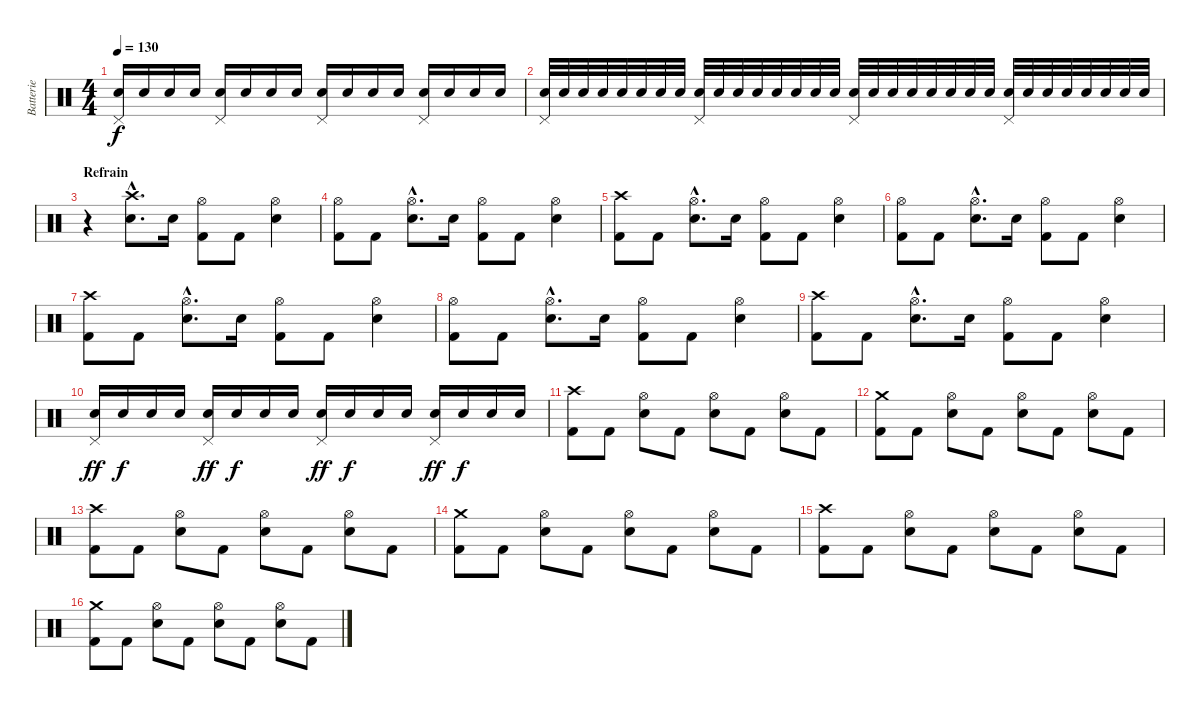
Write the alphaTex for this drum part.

\track ("Batterie" "Batterie") {instrument percussion}
\staff {score}
\articulation defaults
\ts (4 4)
\tempo 130
\clef neutral
\ks c
("Pedal Hi-Hat (hit)" "Snare (hit) 2").16{dy f} "Snare (hit) 2".16 "Snare (hit) 2".16 "Snare (hit) 2".16 ("Pedal Hi-Hat (hit)" "Snare (hit) 2").16 "Snare (hit) 2".16 "Snare (hit) 2".16 "Snare (hit) 2".16 ("Pedal Hi-Hat (hit)" "Snare (hit) 2").16 "Snare (hit) 2".16 "Snare (hit) 2".16 "Snare (hit) 2".16 ("Pedal Hi-Hat (hit)" "Snare (hit) 2").16 "Snare (hit) 2".16 "Snare (hit) 2".16 "Snare (hit) 2".16 |
("Pedal Hi-Hat (hit)" "Snare (hit) 2").32 "Snare (hit) 2".32 "Snare (hit) 2".32 "Snare (hit) 2".32 "Snare (hit) 2".32 "Snare (hit) 2".32 "Snare (hit) 2".32 "Snare (hit) 2".32 ("Pedal Hi-Hat (hit)" "Snare (hit) 2").32 "Snare (hit) 2".32 "Snare (hit) 2".32 "Snare (hit) 2".32 "Snare (hit) 2".32 "Snare (hit) 2".32 "Snare (hit) 2".32 "Snare (hit) 2".32 ("Pedal Hi-Hat (hit)" "Snare (hit) 2").32 "Snare (hit) 2".32 "Snare (hit) 2".32 "Snare (hit) 2".32 "Snare (hit) 2".32 "Snare (hit) 2".32 "Snare (hit) 2".32 "Snare (hit) 2".32 ("Pedal Hi-Hat (hit)" "Snare (hit) 2").32 "Snare (hit) 2".32 "Snare (hit) 2".32 "Snare (hit) 2".32 "Snare (hit) 2".32 "Snare (hit) 2".32 "Snare (hit) 2".32 "Snare (hit) 2".32 |
\section ("" "Refrain")
r.4 ("Crash high (hit)"{hac} "Snare (hit) 2"{hac}).8{d} "Snare (hit) 2".16 ("Hi-Hat (open)" "Kick (hit) 2").8 "Kick (hit) 2".8 ("Hi-Hat (open)" "Snare (hit) 2").4 |
("Hi-Hat (open)" "Kick (hit) 2").8 "Kick (hit) 2".8 ("Hi-Hat (open)"{hac} "Snare (hit) 2"{hac}).8{d} "Snare (hit) 2".16 ("Hi-Hat (open)" "Kick (hit) 2").8 "Kick (hit) 2".8 ("Hi-Hat (open)" "Snare (hit) 2").4 |
("Crash high (hit)" "Kick (hit) 2").8 "Kick (hit) 2".8 ("Hi-Hat (open)"{hac} "Snare (hit) 2"{hac}).8{d} "Snare (hit) 2".16 ("Hi-Hat (open)" "Kick (hit) 2").8 "Kick (hit) 2".8 ("Hi-Hat (open)" "Snare (hit) 2").4 |
("Hi-Hat (open)" "Kick (hit) 2").8 "Kick (hit) 2".8 ("Hi-Hat (open)"{hac} "Snare (hit) 2"{hac}).8{d} "Snare (hit) 2".16 ("Hi-Hat (open)" "Kick (hit) 2").8 "Kick (hit) 2".8 ("Hi-Hat (open)" "Snare (hit) 2").4 |
("Crash high (hit)" "Kick (hit) 2").8 "Kick (hit) 2".8 ("Hi-Hat (open)"{hac} "Snare (hit) 2"{hac}).8{d} "Snare (hit) 2".16 ("Hi-Hat (open)" "Kick (hit) 2").8 "Kick (hit) 2".8 ("Hi-Hat (open)" "Snare (hit) 2").4 |
("Hi-Hat (open)" "Kick (hit) 2").8 "Kick (hit) 2".8 ("Hi-Hat (open)"{hac} "Snare (hit) 2"{hac}).8{d} "Snare (hit) 2".16 ("Hi-Hat (open)" "Kick (hit) 2").8 "Kick (hit) 2".8 ("Hi-Hat (open)" "Snare (hit) 2").4 |
("Crash high (hit)" "Kick (hit) 2").8 "Kick (hit) 2".8 ("Hi-Hat (open)"{hac} "Snare (hit) 2"{hac}).8{d} "Snare (hit) 2".16 ("Hi-Hat (open)" "Kick (hit) 2").8 "Kick (hit) 2".8 ("Hi-Hat (open)" "Snare (hit) 2").4 |
("Pedal Hi-Hat (hit)" "Snare (hit) 2").16{dy ff} "Snare (hit) 2".16{dy f} "Snare (hit) 2".16 "Snare (hit) 2".16 ("Pedal Hi-Hat (hit)" "Snare (hit) 2").16{dy ff} "Snare (hit) 2".16{dy f} "Snare (hit) 2".16 "Snare (hit) 2".16 ("Pedal Hi-Hat (hit)" "Snare (hit) 2").16{dy ff} "Snare (hit) 2".16{dy f} "Snare (hit) 2".16 "Snare (hit) 2".16 ("Pedal Hi-Hat (hit)" "Snare (hit) 2").16{dy ff} "Snare (hit) 2".16{dy f} "Snare (hit) 2".16 "Snare (hit) 2".16 |
("Crash high (hit)" "Kick (hit) 2").8 "Kick (hit) 2".8 ("Hi-Hat (open)" "Snare (hit) 2").8 "Kick (hit) 2".8 ("Hi-Hat (open)" "Snare (hit) 2").8 "Kick (hit) 2".8 ("Hi-Hat (open)" "Snare (hit) 2").8 "Kick (hit) 2".8 |
("Crash medium (hit)" "Kick (hit) 2").8 "Kick (hit) 2".8 ("Hi-Hat (open)" "Snare (hit) 2").8 "Kick (hit) 2".8 ("Hi-Hat (open)" "Snare (hit) 2").8 "Kick (hit) 2".8 ("Hi-Hat (open)" "Snare (hit) 2").8 "Kick (hit) 2".8 |
("Crash high (hit)" "Kick (hit) 2").8 "Kick (hit) 2".8 ("Hi-Hat (open)" "Snare (hit) 2").8 "Kick (hit) 2".8 ("Hi-Hat (open)" "Snare (hit) 2").8 "Kick (hit) 2".8 ("Hi-Hat (open)" "Snare (hit) 2").8 "Kick (hit) 2".8 |
("Crash medium (hit)" "Kick (hit) 2").8 "Kick (hit) 2".8 ("Hi-Hat (open)" "Snare (hit) 2").8 "Kick (hit) 2".8 ("Hi-Hat (open)" "Snare (hit) 2").8 "Kick (hit) 2".8 ("Hi-Hat (open)" "Snare (hit) 2").8 "Kick (hit) 2".8 |
("Crash high (hit)" "Kick (hit) 2").8 "Kick (hit) 2".8 ("Hi-Hat (open)" "Snare (hit) 2").8 "Kick (hit) 2".8 ("Hi-Hat (open)" "Snare (hit) 2").8 "Kick (hit) 2".8 ("Hi-Hat (open)" "Snare (hit) 2").8 "Kick (hit) 2".8 |
("Crash medium (hit)" "Kick (hit) 2").8 "Kick (hit) 2".8 ("Hi-Hat (open)" "Snare (hit) 2").8 "Kick (hit) 2".8 ("Hi-Hat (open)" "Snare (hit) 2").8 "Kick (hit) 2".8 ("Hi-Hat (open)" "Snare (hit) 2").8 "Kick (hit) 2".8
